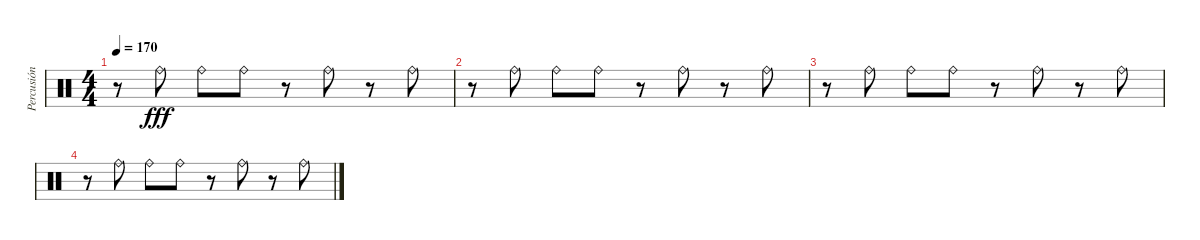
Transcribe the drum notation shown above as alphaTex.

\track ("Percusión" "Percusión") {instrument percussion}
\staff {score}
\articulation defaults
\ts (4 4)
\tempo 170
\clef neutral
\ks c
r.8{dy fff} "Ride (bell)".8 "Ride (bell)".8 "Ride (bell)".8 r.8 "Ride (bell)".8 r.8 "Ride (bell)".8 |
r.8 "Ride (bell)".8 "Ride (bell)".8 "Ride (bell)".8 r.8 "Ride (bell)".8 r.8 "Ride (bell)".8 |
r.8 "Ride (bell)".8 "Ride (bell)".8 "Ride (bell)".8 r.8 "Ride (bell)".8 r.8 "Ride (bell)".8 |
r.8 "Ride (bell)".8 "Ride (bell)".8 "Ride (bell)".8 r.8 "Ride (bell)".8 r.8 "Ride (bell)".8
